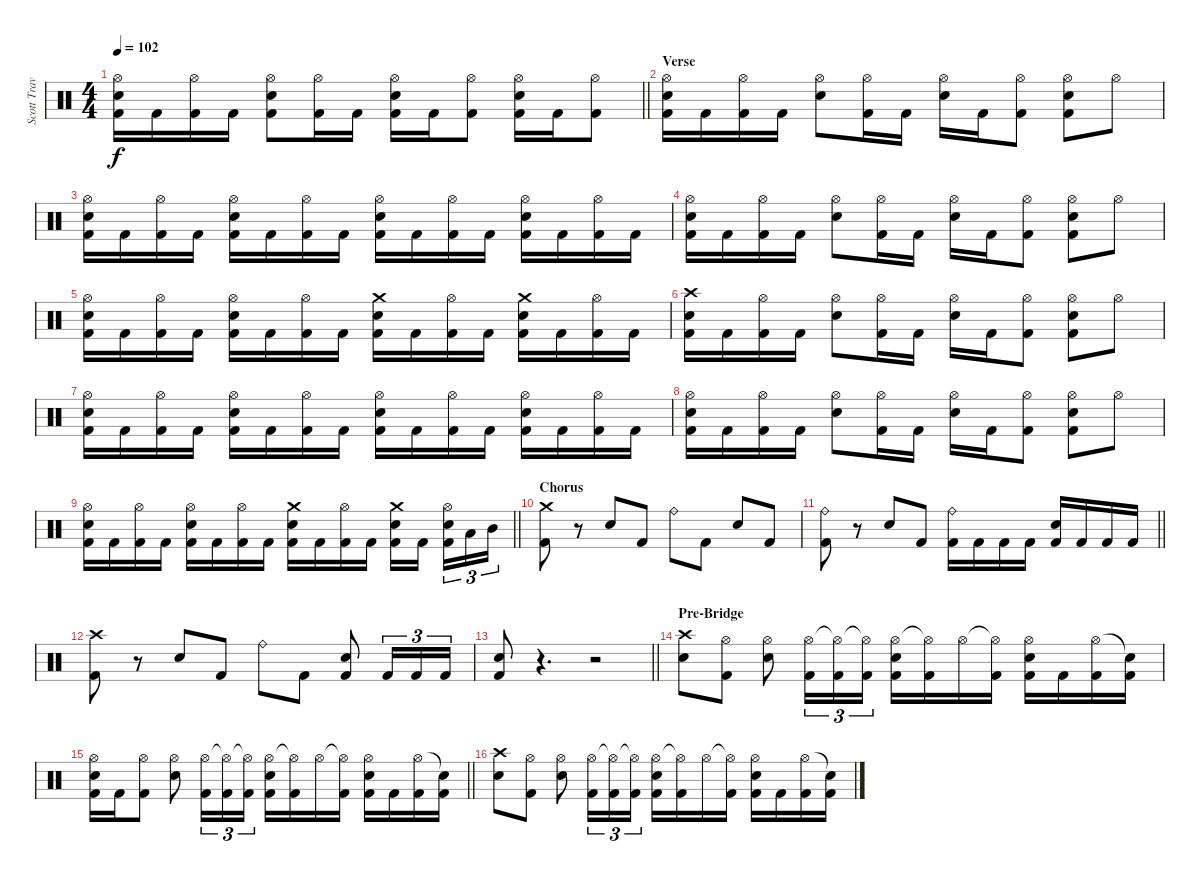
\track ("Scott Travis" "Scott Trav") {instrument percussion}
\staff {score}
\articulation defaults
\ts (4 4)
\tempo 102
\clef neutral
\barLineRight lightlight
\ks c
("Hi-Hat (open)" "Snare (hit) 2" "Kick (hit) 2").16{dy f} "Kick (hit) 2".16 ("Hi-Hat (open)" "Kick (hit) 2").16 "Kick (hit) 2".16 ("Hi-Hat (open)" "Snare (hit) 2" "Kick (hit) 2").8 ("Hi-Hat (open)" "Kick (hit) 2").16 "Kick (hit) 2".16 ("Hi-Hat (open)" "Snare (hit) 2" "Kick (hit) 2").16 "Kick (hit) 2".16 ("Hi-Hat (open)" "Kick (hit) 2").8 ("Hi-Hat (open)" "Snare (hit) 2" "Kick (hit) 2").16 "Kick (hit) 2".16 ("Hi-Hat (open)" "Kick (hit) 2").8 |
\section ("" "Verse")
("Hi-Hat (open)" "Snare (hit) 2" "Kick (hit) 2").16 "Kick (hit) 2".16 ("Hi-Hat (open)" "Kick (hit) 2").16 "Kick (hit) 2".16 ("Hi-Hat (open)" "Snare (hit) 2").8 ("Hi-Hat (open)" "Kick (hit) 2").16 "Kick (hit) 2".16 ("Hi-Hat (open)" "Snare (hit) 2").16 "Kick (hit) 2".16 ("Hi-Hat (open)" "Kick (hit) 2").8 ("Hi-Hat (open)" "Snare (hit) 2" "Kick (hit) 2").8 "Hi-Hat (open)".8 |
("Hi-Hat (open)" "Snare (hit) 2" "Kick (hit) 2").16 "Kick (hit) 2".16 ("Hi-Hat (open)" "Kick (hit) 2").16 "Kick (hit) 2".16 ("Hi-Hat (open)" "Snare (hit) 2" "Kick (hit) 2").16 "Kick (hit) 2".16 ("Hi-Hat (open)" "Kick (hit) 2").16 "Kick (hit) 2".16 ("Hi-Hat (open)" "Snare (hit) 2" "Kick (hit) 2").16 "Kick (hit) 2".16 ("Hi-Hat (open)" "Kick (hit) 2").16 "Kick (hit) 2".16 ("Hi-Hat (open)" "Snare (hit) 2" "Kick (hit) 2").16 "Kick (hit) 2".16 ("Hi-Hat (open)" "Kick (hit) 2").16 "Kick (hit) 2".16 |
("Hi-Hat (open)" "Snare (hit) 2" "Kick (hit) 2").16 "Kick (hit) 2".16 ("Hi-Hat (open)" "Kick (hit) 2").16 "Kick (hit) 2".16 ("Hi-Hat (open)" "Snare (hit) 2").8 ("Hi-Hat (open)" "Kick (hit) 2").16 "Kick (hit) 2".16 ("Hi-Hat (open)" "Snare (hit) 2").16 "Kick (hit) 2".16 ("Hi-Hat (open)" "Kick (hit) 2").8 ("Hi-Hat (open)" "Snare (hit) 2" "Kick (hit) 2").8 "Hi-Hat (open)".8 |
("Hi-Hat (open)" "Snare (hit) 2" "Kick (hit) 2").16 "Kick (hit) 2".16 ("Hi-Hat (open)" "Kick (hit) 2").16 "Kick (hit) 2".16 ("Hi-Hat (open)" "Snare (hit) 2" "Kick (hit) 2").16 "Kick (hit) 2".16 ("Hi-Hat (open)" "Kick (hit) 2").16 "Kick (hit) 2".16 ("Crash medium (hit)" "Snare (hit) 2" "Kick (hit) 2").16 "Kick (hit) 2".16 ("Hi-Hat (open)" "Kick (hit) 2").16 "Kick (hit) 2".16 ("Crash medium (hit)" "Snare (hit) 2" "Kick (hit) 2").16 "Kick (hit) 2".16 ("Hi-Hat (open)" "Kick (hit) 2").16 "Kick (hit) 2".16 |
("Crash high (hit)" "Snare (hit) 2" "Kick (hit) 2").16 "Kick (hit) 2".16 ("Hi-Hat (open)" "Kick (hit) 2").16 "Kick (hit) 2".16 ("Hi-Hat (open)" "Snare (hit) 2").8 ("Hi-Hat (open)" "Kick (hit) 2").16 "Kick (hit) 2".16 ("Hi-Hat (open)" "Snare (hit) 2").16 "Kick (hit) 2".16 ("Hi-Hat (open)" "Kick (hit) 2").8 ("Hi-Hat (open)" "Snare (hit) 2" "Kick (hit) 2").8 "Hi-Hat (open)".8 |
("Hi-Hat (open)" "Snare (hit) 2" "Kick (hit) 2").16 "Kick (hit) 2".16 ("Hi-Hat (open)" "Kick (hit) 2").16 "Kick (hit) 2".16 ("Hi-Hat (open)" "Snare (hit) 2" "Kick (hit) 2").16 "Kick (hit) 2".16 ("Hi-Hat (open)" "Kick (hit) 2").16 "Kick (hit) 2".16 ("Hi-Hat (open)" "Snare (hit) 2" "Kick (hit) 2").16 "Kick (hit) 2".16 ("Hi-Hat (open)" "Kick (hit) 2").16 "Kick (hit) 2".16 ("Hi-Hat (open)" "Snare (hit) 2" "Kick (hit) 2").16 "Kick (hit) 2".16 ("Hi-Hat (open)" "Kick (hit) 2").16 "Kick (hit) 2".16 |
("Hi-Hat (open)" "Snare (hit) 2" "Kick (hit) 2").16 "Kick (hit) 2".16 ("Hi-Hat (open)" "Kick (hit) 2").16 "Kick (hit) 2".16 ("Hi-Hat (open)" "Snare (hit) 2").8 ("Hi-Hat (open)" "Kick (hit) 2").16 "Kick (hit) 2".16 ("Hi-Hat (open)" "Snare (hit) 2").16 "Kick (hit) 2".16 ("Hi-Hat (open)" "Kick (hit) 2").8 ("Hi-Hat (open)" "Snare (hit) 2" "Kick (hit) 2").8 "Hi-Hat (open)".8 |
\barLineRight lightlight
("Hi-Hat (open)" "Snare (hit) 2" "Kick (hit) 2").16 "Kick (hit) 2".16 ("Hi-Hat (open)" "Kick (hit) 2").16 "Kick (hit) 2".16 ("Hi-Hat (open)" "Snare (hit) 2" "Kick (hit) 2").16 "Kick (hit) 2".16 ("Hi-Hat (open)" "Kick (hit) 2").16 "Kick (hit) 2".16 ("Crash medium (hit)" "Snare (hit) 2" "Kick (hit) 2").16 "Kick (hit) 2".16 ("Hi-Hat (open)" "Kick (hit) 2").16 "Kick (hit) 2".16 ("Crash medium (hit)" "Snare (hit) 2" "Kick (hit) 2").16 "Kick (hit) 2".16{beam splitsecondary} ("Hi-Hat (open)" "Snare (hit) 2" "Kick (hit) 2").16{tu (3 2)} "Low Tom (hit)".16{tu (3 2)} "Mid Tom (hit)".16{tu (3 2)} |
\section ("" "Chorus")
("Crash medium (hit)" "Kick (hit) 2").8 r.8 "Snare (hit) 2".8 "Kick (hit) 2".8 "Ride (bell)".8 "Kick (hit) 2".8 "Snare (hit) 2".8 "Kick (hit) 2".8 |
\barLineRight lightlight
("Ride (bell)" "Kick (hit) 2").8 r.8 "Snare (hit) 2".8 "Kick (hit) 2".8 ("Ride (bell)" "Kick (hit) 2").16 "Kick (hit) 2".16 "Kick (hit) 2".16 "Kick (hit) 2".16 ("Snare (hit) 2" "Kick (hit) 2").16 "Kick (hit) 2".16 "Kick (hit) 2".16 "Kick (hit) 2".16 |
("Crash high (hit)" "Kick (hit) 2").8 r.8 "Snare (hit) 2".8 "Kick (hit) 2".8 "Ride (bell)".8 "Kick (hit) 2".8 ("Snare (hit) 2" "Kick (hit) 2").8 "Kick (hit) 2".16{tu (3 2)} "Kick (hit) 2".16{tu (3 2)} "Kick (hit) 2".16{tu (3 2)} |
\barLineRight lightlight
("Snare (hit) 2" "Kick (hit) 2").8 r.4{d} r.2 |
\section ("" "Pre-Bridge")
("Crash high (hit)" "Snare (hit) 2").8 ("Hi-Hat (open)" "Kick (hit) 2").8 ("Hi-Hat (open)" "Snare (hit) 2").8 ("Hi-Hat (open)" "Kick (hit) 2").16{tu (3 2)} ("Hi-Hat (open)"{t} "Kick (hit) 2").16{tu (3 2)} ("Hi-Hat (open)"{t} "Kick (hit) 2").16{tu (3 2)} ("Hi-Hat (open)" "Snare (hit) 2" "Kick (hit) 2").16 ("Hi-Hat (open)"{t} "Kick (hit) 2").16 "Hi-Hat (open)".16 ("Hi-Hat (open)"{t} "Kick (hit) 2").16 ("Hi-Hat (open)" "Snare (hit) 2" "Kick (hit) 2").16 "Kick (hit) 2".16 ("Hi-Hat (open)" "Kick (hit) 2").16 ("Snare (hit)"{t} "Kick (hit) 2").16 |
\barLineRight lightlight
("Hi-Hat (open)" "Snare (hit) 2" "Kick (hit) 2").16 "Kick (hit) 2".16 ("Hi-Hat (open)" "Kick (hit) 2").8 ("Hi-Hat (open)" "Snare (hit) 2").8 ("Hi-Hat (open)" "Kick (hit) 2").16{tu (3 2)} ("Hi-Hat (open)"{t} "Kick (hit) 2").16{tu (3 2)} ("Hi-Hat (open)"{t} "Kick (hit) 2").16{tu (3 2)} ("Hi-Hat (open)" "Snare (hit) 2" "Kick (hit) 2").16 ("Hi-Hat (open)"{t} "Kick (hit) 2").16 "Hi-Hat (open)".16 ("Hi-Hat (open)"{t} "Kick (hit) 2").16 ("Hi-Hat (open)" "Snare (hit) 2" "Kick (hit) 2").16 "Kick (hit) 2".16 ("Hi-Hat (open)" "Kick (hit) 2").16 ("Snare (hit)"{t} "Kick (hit) 2").16 |
("Crash high (hit)" "Snare (hit) 2").8 ("Hi-Hat (open)" "Kick (hit) 2").8 ("Hi-Hat (open)" "Snare (hit) 2").8 ("Hi-Hat (open)" "Kick (hit) 2").16{tu (3 2)} ("Hi-Hat (open)"{t} "Kick (hit) 2").16{tu (3 2)} ("Hi-Hat (open)"{t} "Kick (hit) 2").16{tu (3 2)} ("Hi-Hat (open)" "Snare (hit) 2" "Kick (hit) 2").16 ("Hi-Hat (open)"{t} "Kick (hit) 2").16 "Hi-Hat (open)".16 ("Hi-Hat (open)"{t} "Kick (hit) 2").16 ("Hi-Hat (open)" "Snare (hit) 2" "Kick (hit) 2").16 "Kick (hit) 2".16 ("Hi-Hat (open)" "Kick (hit) 2").16 ("Snare (hit)"{t} "Kick (hit) 2").16
